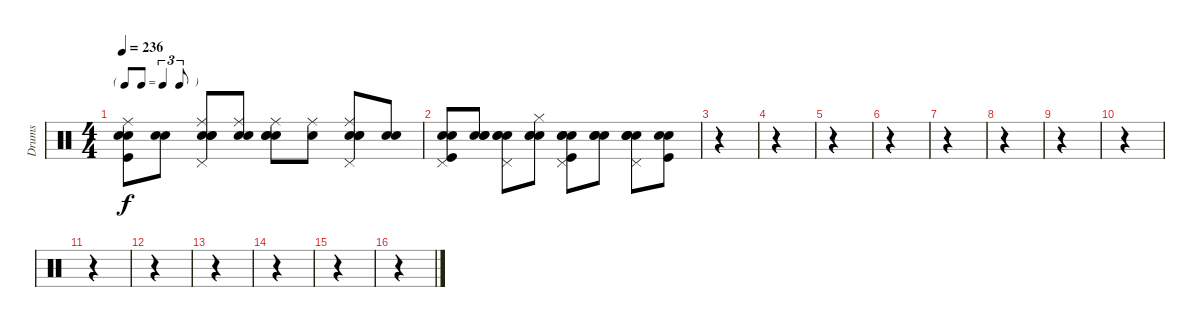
\track ("Drums" "Drums") {instrument percussion}
\staff {score}
\articulation defaults
\ts (4 4)
\tf triplet8th
\tempo 236
\clef neutral
\ks c
("Snare (hit)" "Kick (hit)" "Electric Snare (hit)" "Ride (middle)").8{dy f} ("Snare (hit)" "Electric Snare (hit)").8 ("Snare (hit)" "Snare (hit) 2" "Electric Snare (hit)" "Ride (middle)" "Pedal Hi-Hat (hit)").8 ("Snare (hit)" "Snare (hit) 2" "Ride (middle)").8 ("Snare (hit)" "Snare (hit) 2" "Electric Snare (hit)" "Ride (middle)").8 ("Snare (hit)" "Ride (middle)").8 ("Snare (hit)" "Snare (hit) 2" "Electric Snare (hit)" "Ride (middle)" "Pedal Hi-Hat (hit)").8 ("Snare (hit)" "Snare (hit) 2").8 |
("Snare (hit)" "Kick (hit)" "Electric Snare (hit)" "Pedal Hi-Hat (hit)").8 ("Snare (hit)" "Electric Snare (hit)" "Hand Clap (hit)").8 ("Snare (hit)" "Snare (hit) 2" "Electric Snare (hit)" "Pedal Hi-Hat (hit)").8 ("Snare (hit)" "Snare (hit) 2" "Hi-Hat (closed)" "Hand Clap (hit)").8 ("Snare (hit)" "Kick (hit)" "Electric Snare (hit)" "Pedal Hi-Hat (hit)" "Hand Clap (hit)").8 ("Snare (hit)" "Electric Snare (hit)" "Hand Clap (hit)").8 ("Snare (hit)" "Snare (hit) 2" "Electric Snare (hit)" "Pedal Hi-Hat (hit)" "Hand Clap (hit)").8 ("Snare (hit)" "Kick (hit)" "Hand Clap (hit)").8 |
r.4 |
r.4 |
r.4 |
r.4 |
r.4 |
r.4 |
r.4 |
r.4 |
r.4 |
r.4 |
r.4 |
r.4 |
r.4 |
r.4
